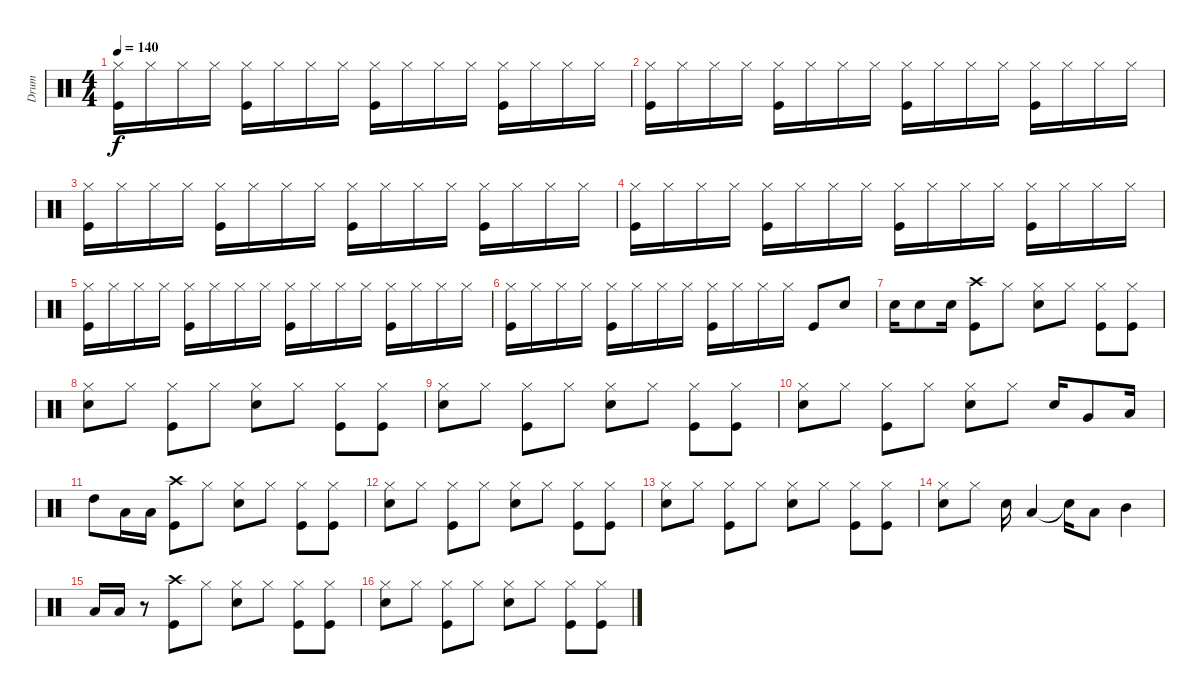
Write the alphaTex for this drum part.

\track ("Drum" "Drum") {instrument percussion}
\staff {score}
\articulation defaults
\ts (4 4)
\tempo 140
\clef neutral
\ks c
("Hi-Hat (closed)" "Kick (hit)").16{dy f} "Hi-Hat (closed)".16 "Hi-Hat (closed)".16 "Hi-Hat (closed)".16 ("Hi-Hat (closed)" "Kick (hit)").16 "Hi-Hat (closed)".16 "Hi-Hat (closed)".16 "Hi-Hat (closed)".16 ("Hi-Hat (closed)" "Kick (hit)").16 "Hi-Hat (closed)".16 "Hi-Hat (closed)".16 "Hi-Hat (closed)".16 ("Hi-Hat (closed)" "Kick (hit)").16 "Hi-Hat (closed)".16 "Hi-Hat (closed)".16 "Hi-Hat (closed)".16 |
("Hi-Hat (closed)" "Kick (hit)").16 "Hi-Hat (closed)".16 "Hi-Hat (closed)".16 "Hi-Hat (closed)".16 ("Hi-Hat (closed)" "Kick (hit)").16 "Hi-Hat (closed)".16 "Hi-Hat (closed)".16 "Hi-Hat (closed)".16 ("Hi-Hat (closed)" "Kick (hit)").16 "Hi-Hat (closed)".16 "Hi-Hat (closed)".16 "Hi-Hat (closed)".16 ("Hi-Hat (closed)" "Kick (hit)").16 "Hi-Hat (closed)".16 "Hi-Hat (closed)".16 "Hi-Hat (closed)".16 |
("Hi-Hat (closed)" "Kick (hit)").16 "Hi-Hat (closed)".16 "Hi-Hat (closed)".16 "Hi-Hat (closed)".16 ("Hi-Hat (closed)" "Kick (hit)").16 "Hi-Hat (closed)".16 "Hi-Hat (closed)".16 "Hi-Hat (closed)".16 ("Hi-Hat (closed)" "Kick (hit)").16 "Hi-Hat (closed)".16 "Hi-Hat (closed)".16 "Hi-Hat (closed)".16 ("Hi-Hat (closed)" "Kick (hit)").16 "Hi-Hat (closed)".16 "Hi-Hat (closed)".16 "Hi-Hat (closed)".16 |
("Hi-Hat (closed)" "Kick (hit)").16 "Hi-Hat (closed)".16 "Hi-Hat (closed)".16 "Hi-Hat (closed)".16 ("Hi-Hat (closed)" "Kick (hit)").16 "Hi-Hat (closed)".16 "Hi-Hat (closed)".16 "Hi-Hat (closed)".16 ("Hi-Hat (closed)" "Kick (hit)").16 "Hi-Hat (closed)".16 "Hi-Hat (closed)".16 "Hi-Hat (closed)".16 ("Hi-Hat (closed)" "Kick (hit)").16 "Hi-Hat (closed)".16 "Hi-Hat (closed)".16 "Hi-Hat (closed)".16 |
("Hi-Hat (closed)" "Kick (hit)").16 "Hi-Hat (closed)".16 "Hi-Hat (closed)".16 "Hi-Hat (closed)".16 ("Hi-Hat (closed)" "Kick (hit)").16 "Hi-Hat (closed)".16 "Hi-Hat (closed)".16 "Hi-Hat (closed)".16 ("Hi-Hat (closed)" "Kick (hit)").16 "Hi-Hat (closed)".16 "Hi-Hat (closed)".16 "Hi-Hat (closed)".16 ("Hi-Hat (closed)" "Kick (hit)").16 "Hi-Hat (closed)".16 "Hi-Hat (closed)".16 "Hi-Hat (closed)".16 |
("Hi-Hat (closed)" "Kick (hit)").16 "Hi-Hat (closed)".16 "Hi-Hat (closed)".16 "Hi-Hat (closed)".16 ("Hi-Hat (closed)" "Kick (hit)").16 "Hi-Hat (closed)".16 "Hi-Hat (closed)".16 "Hi-Hat (closed)".16 ("Hi-Hat (closed)" "Kick (hit)").16 "Hi-Hat (closed)".16 "Hi-Hat (closed)".16 "Hi-Hat (closed)".16 "Kick (hit)".8 "Snare (hit) 2".8 |
"Snare (hit) 2".16 "Snare (hit) 2".8 "Snare (hit) 2".16 ("Crash high (hit)" "Kick (hit)").8 "Hi-Hat (closed)".8 ("Hi-Hat (closed)" "Snare (hit) 2").8 "Hi-Hat (closed)".8 ("Hi-Hat (closed)" "Kick (hit)").8 ("Hi-Hat (closed)" "Kick (hit)").8 |
("Hi-Hat (closed)" "Snare (hit) 2").8 "Hi-Hat (closed)".8 ("Hi-Hat (closed)" "Kick (hit)").8 "Hi-Hat (closed)".8 ("Hi-Hat (closed)" "Snare (hit) 2").8 "Hi-Hat (closed)".8 ("Hi-Hat (closed)" "Kick (hit)").8 ("Hi-Hat (closed)" "Kick (hit)").8 |
("Hi-Hat (closed)" "Snare (hit) 2").8 "Hi-Hat (closed)".8 ("Hi-Hat (closed)" "Kick (hit)").8 "Hi-Hat (closed)".8 ("Hi-Hat (closed)" "Snare (hit) 2").8 "Hi-Hat (closed)".8 ("Hi-Hat (closed)" "Kick (hit)").8 ("Hi-Hat (closed)" "Kick (hit)").8 |
("Hi-Hat (closed)" "Snare (hit) 2").8 "Hi-Hat (closed)".8 ("Hi-Hat (closed)" "Kick (hit)").8 "Hi-Hat (closed)".8 ("Hi-Hat (closed)" "Snare (hit) 2").8 "Hi-Hat (closed)".8 "Snare (hit) 2".16 "Very Low Tom (hit)".8 "Low Floor Tom (hit)".16 |
"High Tom (hit)".8 "Low Tom (hit)".16 "Low Floor Tom (hit)".16 ("Crash high (hit)" "Kick (hit)").8 "Hi-Hat (closed)".8 ("Hi-Hat (closed)" "Snare (hit) 2").8 "Hi-Hat (closed)".8 ("Hi-Hat (closed)" "Kick (hit)").8 ("Hi-Hat (closed)" "Kick (hit)").8 |
("Hi-Hat (closed)" "Snare (hit) 2").8 "Hi-Hat (closed)".8 ("Hi-Hat (closed)" "Kick (hit)").8 "Hi-Hat (closed)".8 ("Hi-Hat (closed)" "Snare (hit) 2").8 "Hi-Hat (closed)".8 ("Hi-Hat (closed)" "Kick (hit)").8 ("Hi-Hat (closed)" "Kick (hit)").8 |
("Hi-Hat (closed)" "Snare (hit) 2").8 "Hi-Hat (closed)".8 ("Hi-Hat (closed)" "Kick (hit)").8 "Hi-Hat (closed)".8 ("Hi-Hat (closed)" "Snare (hit) 2").8 "Hi-Hat (closed)".8 ("Hi-Hat (closed)" "Kick (hit)").8 ("Hi-Hat (closed)" "Kick (hit)").8 |
("Hi-Hat (closed)" "Snare (hit) 2").8 "Hi-Hat (closed)".8 "Snare (hit) 2".16 "Low Tom (hit)".4 "Snare (hit)"{t}.16 "Low Floor Tom (hit)".8 "Mid Tom (hit)".4 |
"Low Floor Tom (hit)".16 "Low Floor Tom (hit)".16 r.8 ("Crash high (hit)" "Kick (hit)").8 "Hi-Hat (closed)".8 ("Hi-Hat (closed)" "Snare (hit) 2").8 "Hi-Hat (closed)".8 ("Hi-Hat (closed)" "Kick (hit)").8 ("Hi-Hat (closed)" "Kick (hit)").8 |
("Hi-Hat (closed)" "Snare (hit) 2").8 "Hi-Hat (closed)".8 ("Hi-Hat (closed)" "Kick (hit)").8 "Hi-Hat (closed)".8 ("Hi-Hat (closed)" "Snare (hit) 2").8 "Hi-Hat (closed)".8 ("Hi-Hat (closed)" "Kick (hit)").8 ("Hi-Hat (closed)" "Kick (hit)").8
